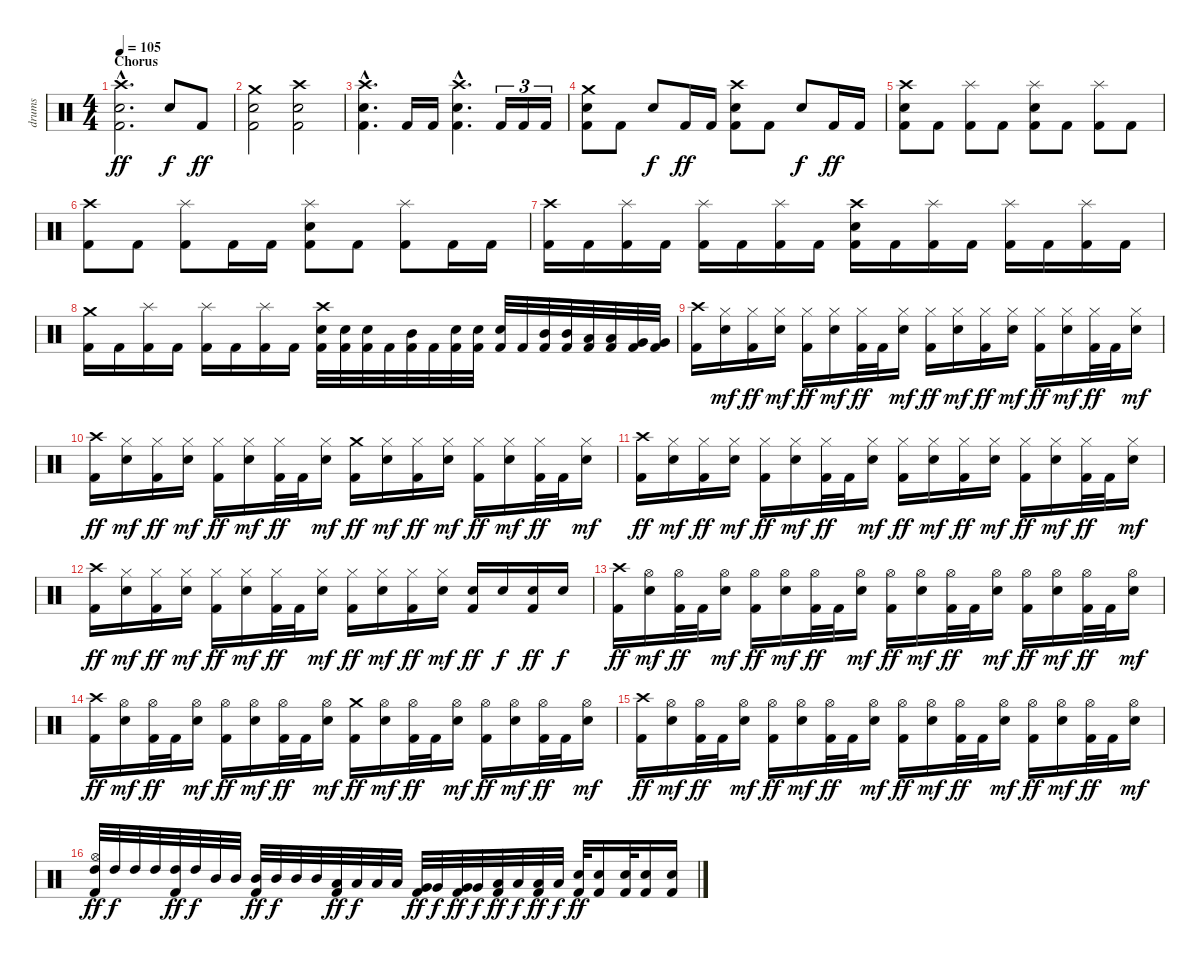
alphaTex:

\track ("drums" "drums") {instrument percussion}
\staff {score}
\articulation defaults
\ts (4 4)
\section ("" "Chorus")
\tempo 105
\clef neutral
\ks c
("Crash high (hit)"{hac} "Snare (hit) 2"{hac} "Kick (hit) 2"{hac}).2{d dy ff} "Snare (hit) 2".8{dy f} "Kick (hit) 2".8{dy ff} |
("Crash medium (hit)" "Snare (hit) 2" "Kick (hit) 2").2 ("Crash high (hit)" "Snare (hit) 2" "Kick (hit) 2").2 |
("Crash high (hit)"{hac} "Snare (hit) 2"{hac} "Kick (hit) 2"{hac}).4{d} "Kick (hit) 2".16 "Kick (hit) 2".16 ("Crash high (hit)"{hac} "Snare (hit) 2"{hac} "Kick (hit) 2"{hac}).4{d} "Kick (hit) 2".16{tu (3 2)} "Kick (hit) 2".16{tu (3 2)} "Kick (hit) 2".16{tu (3 2)} |
("Crash medium (hit)" "Snare (hit) 2" "Kick (hit) 2").8 "Kick (hit) 2".8 "Snare (hit) 2".8{dy f} "Kick (hit) 2".16{dy ff} "Kick (hit) 2".16 ("Crash high (hit)" "Snare (hit) 2" "Kick (hit) 2").8 "Kick (hit) 2".8 "Snare (hit) 2".8{dy f} "Kick (hit) 2".16{dy ff} "Kick (hit) 2".16 |
("Crash high (hit)" "Snare (hit) 2" "Kick (hit) 2").8 "Kick (hit) 2".8 ("Splash (hit)" "Kick (hit) 2").8 "Kick (hit) 2".8 ("Splash (hit)" "Snare (hit) 2" "Kick (hit) 2").8 "Kick (hit) 2".8 ("Splash (hit)" "Kick (hit) 2").8 "Kick (hit) 2".8 |
("Crash high (hit)" "Kick (hit) 2").8 "Kick (hit) 2".8 ("Splash (hit)" "Kick (hit) 2").8 "Kick (hit) 2".16 "Kick (hit) 2".16 ("Splash (hit)" "Snare (hit) 2" "Kick (hit) 2").8 "Kick (hit) 2".8 ("Splash (hit)" "Kick (hit) 2").8 "Kick (hit) 2".16 "Kick (hit) 2".16 |
("Crash high (hit)" "Kick (hit) 2").16 "Kick (hit) 2".16 ("Splash (hit)" "Kick (hit) 2").16 "Kick (hit) 2".16 ("Splash (hit)" "Kick (hit) 2").16 "Kick (hit) 2".16 ("Splash (hit)" "Kick (hit) 2").16 "Kick (hit) 2".16 ("Crash high (hit)" "Snare (hit) 2" "Kick (hit) 2").16 "Kick (hit) 2".16 ("Splash (hit)" "Kick (hit) 2").16 "Kick (hit) 2".16 ("Splash (hit)" "Kick (hit) 2").16 "Kick (hit) 2".16 ("Splash (hit)" "Kick (hit) 2").16 "Kick (hit) 2".16 |
("Crash medium (hit)" "Kick (hit) 2").16 "Kick (hit) 2".16 ("Splash (hit)" "Kick (hit) 2").16 "Kick (hit) 2".16 ("Splash (hit)" "Kick (hit) 2").16 "Kick (hit) 2".16 ("Splash (hit)" "Kick (hit) 2").16 "Kick (hit) 2".16 ("Crash high (hit)" "Snare (hit) 2" "Kick (hit) 2").32 ("Snare (hit) 2" "Kick (hit) 2").32 ("Snare (hit) 2" "Kick (hit) 2").32 "Kick (hit) 2".32 ("Mid Tom (hit)" "Kick (hit) 2").32 "Kick (hit) 2".32 ("Snare (hit) 2" "Kick (hit) 2").32 ("Snare (hit) 2" "Kick (hit) 2").32 ("Snare (hit) 2" "Kick (hit) 2").32 "Kick (hit) 2".32 ("Mid Tom (hit)" "Kick (hit) 2").32 ("Mid Tom (hit)" "Kick (hit) 2").32 ("Low Tom (hit)" "Kick (hit) 2").32 ("Low Tom (hit)" "Kick (hit) 2").32 ("Very Low Tom (hit)" "Kick (hit) 2").32 ("Very Low Tom (hit)" "Kick (hit) 2").32 |
\section ("" "")
("Crash high (hit)" "Kick (hit) 2").16 ("Hi-Hat (closed)" "Snare (hit) 2").16{dy mf} ("Hi-Hat (closed)" "Kick (hit) 2").16{dy ff} ("Hi-Hat (closed)" "Snare (hit) 2").16{dy mf} ("Hi-Hat (closed)" "Kick (hit) 2").16{dy ff} ("Hi-Hat (closed)" "Snare (hit) 2").16{dy mf} ("Hi-Hat (closed)" "Kick (hit) 2").32{dy ff} "Kick (hit) 2".32 ("Hi-Hat (closed)" "Snare (hit) 2").16{dy mf} ("Hi-Hat (closed)" "Kick (hit) 2").16{dy ff} ("Hi-Hat (closed)" "Snare (hit) 2").16{dy mf} ("Hi-Hat (closed)" "Kick (hit) 2").16{dy ff} ("Hi-Hat (closed)" "Snare (hit) 2").16{dy mf} ("Hi-Hat (closed)" "Kick (hit) 2").16{dy ff} ("Hi-Hat (closed)" "Snare (hit) 2").16{dy mf} ("Hi-Hat (closed)" "Kick (hit) 2").32{dy ff} "Kick (hit) 2".32 ("Hi-Hat (closed)" "Snare (hit) 2").16{dy mf} |
("Crash high (hit)" "Kick (hit) 2").16{dy ff} ("Hi-Hat (closed)" "Snare (hit) 2").16{dy mf} ("Hi-Hat (closed)" "Kick (hit) 2").16{dy ff} ("Hi-Hat (closed)" "Snare (hit) 2").16{dy mf} ("Hi-Hat (closed)" "Kick (hit) 2").16{dy ff} ("Hi-Hat (closed)" "Snare (hit) 2").16{dy mf} ("Hi-Hat (closed)" "Kick (hit) 2").32{dy ff} "Kick (hit) 2".32 ("Hi-Hat (closed)" "Snare (hit) 2").16{dy mf} ("Crash medium (hit)" "Kick (hit) 2").16{dy ff} ("Hi-Hat (closed)" "Snare (hit) 2").16{dy mf} ("Hi-Hat (closed)" "Kick (hit) 2").16{dy ff} ("Hi-Hat (closed)" "Snare (hit) 2").16{dy mf} ("Hi-Hat (closed)" "Kick (hit) 2").16{dy ff} ("Hi-Hat (closed)" "Snare (hit) 2").16{dy mf} ("Hi-Hat (closed)" "Kick (hit) 2").32{dy ff} "Kick (hit) 2".32 ("Hi-Hat (closed)" "Snare (hit) 2").16{dy mf} |
("Crash high (hit)" "Kick (hit) 2").16{dy ff} ("Hi-Hat (closed)" "Snare (hit) 2").16{dy mf} ("Hi-Hat (closed)" "Kick (hit) 2").16{dy ff} ("Hi-Hat (closed)" "Snare (hit) 2").16{dy mf} ("Hi-Hat (closed)" "Kick (hit) 2").16{dy ff} ("Hi-Hat (closed)" "Snare (hit) 2").16{dy mf} ("Hi-Hat (closed)" "Kick (hit) 2").32{dy ff} "Kick (hit) 2".32 ("Hi-Hat (closed)" "Snare (hit) 2").16{dy mf} ("Hi-Hat (closed)" "Kick (hit) 2").16{dy ff} ("Hi-Hat (closed)" "Snare (hit) 2").16{dy mf} ("Hi-Hat (closed)" "Kick (hit) 2").16{dy ff} ("Hi-Hat (closed)" "Snare (hit) 2").16{dy mf} ("Hi-Hat (closed)" "Kick (hit) 2").16{dy ff} ("Hi-Hat (closed)" "Snare (hit) 2").16{dy mf} ("Hi-Hat (closed)" "Kick (hit) 2").32{dy ff} "Kick (hit) 2".32 ("Hi-Hat (closed)" "Snare (hit) 2").16{dy mf} |
("Crash high (hit)" "Kick (hit) 2").16{dy ff} ("Hi-Hat (closed)" "Snare (hit) 2").16{dy mf} ("Hi-Hat (closed)" "Kick (hit) 2").16{dy ff} ("Hi-Hat (closed)" "Snare (hit) 2").16{dy mf} ("Hi-Hat (closed)" "Kick (hit) 2").16{dy ff} ("Hi-Hat (closed)" "Snare (hit) 2").16{dy mf} ("Hi-Hat (closed)" "Kick (hit) 2").32{dy ff} "Kick (hit) 2".32 ("Hi-Hat (closed)" "Snare (hit) 2").16{dy mf} ("Hi-Hat (closed)" "Kick (hit) 2").16{dy ff} ("Hi-Hat (closed)" "Snare (hit) 2").16{dy mf} ("Hi-Hat (closed)" "Kick (hit) 2").16{dy ff} ("Hi-Hat (closed)" "Snare (hit) 2").16{dy mf} ("Snare (hit) 2" "Kick (hit) 2").16{dy ff} "Snare (hit) 2".16{dy f} ("Snare (hit) 2" "Kick (hit) 2").16{dy ff} "Snare (hit) 2".16{dy f} |
("Crash high (hit)" "Kick (hit) 2").16{dy ff} ("Hi-Hat (open)" "Snare (hit) 2").16{dy mf} ("Hi-Hat (open)" "Kick (hit) 2").32{dy ff} "Kick (hit) 2".32 ("Hi-Hat (open)" "Snare (hit) 2").16{dy mf} ("Hi-Hat (open)" "Kick (hit) 2").16{dy ff} ("Hi-Hat (open)" "Snare (hit) 2").16{dy mf} ("Hi-Hat (open)" "Kick (hit) 2").32{dy ff} "Kick (hit) 2".32 ("Hi-Hat (open)" "Snare (hit) 2").16{dy mf} ("Hi-Hat (open)" "Kick (hit) 2").16{dy ff} ("Hi-Hat (open)" "Snare (hit) 2").16{dy mf} ("Hi-Hat (open)" "Kick (hit) 2").32{dy ff} "Kick (hit) 2".32 ("Hi-Hat (open)" "Snare (hit) 2").16{dy mf} ("Hi-Hat (open)" "Kick (hit) 2").16{dy ff} ("Hi-Hat (open)" "Snare (hit) 2").16{dy mf} ("Hi-Hat (open)" "Kick (hit) 2").32{dy ff} "Kick (hit) 2".32 ("Hi-Hat (open)" "Snare (hit) 2").16{dy mf} |
("Crash high (hit)" "Kick (hit) 2").16{dy ff} ("Hi-Hat (open)" "Snare (hit) 2").16{dy mf} ("Hi-Hat (open)" "Kick (hit) 2").32{dy ff} "Kick (hit) 2".32 ("Hi-Hat (open)" "Snare (hit) 2").16{dy mf} ("Hi-Hat (open)" "Kick (hit) 2").16{dy ff} ("Hi-Hat (open)" "Snare (hit) 2").16{dy mf} ("Hi-Hat (open)" "Kick (hit) 2").32{dy ff} "Kick (hit) 2".32 ("Hi-Hat (open)" "Snare (hit) 2").16{dy mf} ("Crash medium (hit)" "Kick (hit) 2").16{dy ff} ("Hi-Hat (open)" "Snare (hit) 2").16{dy mf} ("Hi-Hat (open)" "Kick (hit) 2").32{dy ff} "Kick (hit) 2".32 ("Hi-Hat (open)" "Snare (hit) 2").16{dy mf} ("Hi-Hat (open)" "Kick (hit) 2").16{dy ff} ("Hi-Hat (open)" "Snare (hit) 2").16{dy mf} ("Hi-Hat (open)" "Kick (hit) 2").32{dy ff} "Kick (hit) 2".32 ("Hi-Hat (open)" "Snare (hit) 2").16{dy mf} |
("Crash high (hit)" "Kick (hit) 2").16{dy ff} ("Hi-Hat (open)" "Snare (hit) 2").16{dy mf} ("Hi-Hat (open)" "Kick (hit) 2").32{dy ff} "Kick (hit) 2".32 ("Hi-Hat (open)" "Snare (hit) 2").16{dy mf} ("Hi-Hat (open)" "Kick (hit) 2").16{dy ff} ("Hi-Hat (open)" "Snare (hit) 2").16{dy mf} ("Hi-Hat (open)" "Kick (hit) 2").32{dy ff} "Kick (hit) 2".32 ("Hi-Hat (open)" "Snare (hit) 2").16{dy mf} ("Hi-Hat (open)" "Kick (hit) 2").16{dy ff} ("Hi-Hat (open)" "Snare (hit) 2").16{dy mf} ("Hi-Hat (open)" "Kick (hit) 2").32{dy ff} "Kick (hit) 2".32 ("Hi-Hat (open)" "Snare (hit) 2").16{dy mf} ("Hi-Hat (open)" "Kick (hit) 2").16{dy ff} ("Hi-Hat (open)" "Snare (hit) 2").16{dy mf} ("Hi-Hat (open)" "Kick (hit) 2").32{dy ff} "Kick (hit) 2".32 ("Hi-Hat (open)" "Snare (hit) 2").16{dy mf} |
("Hi-Hat (open)" "High Tom (hit)" "Kick (hit) 2").32{dy ff} "High Tom (hit)".32{dy f} "High Tom (hit)".32 "High Tom (hit)".32 ("High Tom (hit)" "Kick (hit) 2").32{dy ff} "High Tom (hit)".32{dy f} "Mid Tom (hit)".32 "Mid Tom (hit)".32 ("Mid Tom (hit)" "Kick (hit) 2").32{dy ff} "Mid Tom (hit)".32{dy f} "Mid Tom (hit)".32 "Mid Tom (hit)".32 ("Low Tom (hit)" "Kick (hit) 2").32{dy ff} "Low Tom (hit)".32{dy f} "Low Tom (hit)".32 "Low Tom (hit)".32 ("Very Low Tom (hit)" "Kick (hit) 2").32{dy ff} "Very Low Tom (hit)".32{dy f} ("Very Low Tom (hit)" "Kick (hit) 2").32{dy ff} "Very Low Tom (hit)".32{dy f} ("Low Floor Tom (hit)" "Kick (hit) 2").32{dy ff} "Low Floor Tom (hit)".32{dy f} ("Low Floor Tom (hit)" "Kick (hit) 2").32{dy ff} "Low Floor Tom (hit)".32{dy f} ("Snare (hit) 2" "Kick (hit) 2").32{dy ff} ("Snare (hit) 2" "Kick (hit) 2").16 ("Snare (hit) 2" "Kick (hit) 2").32 ("Snare (hit) 2" "Kick (hit) 2").16 ("Snare (hit) 2" "Kick (hit) 2").16
